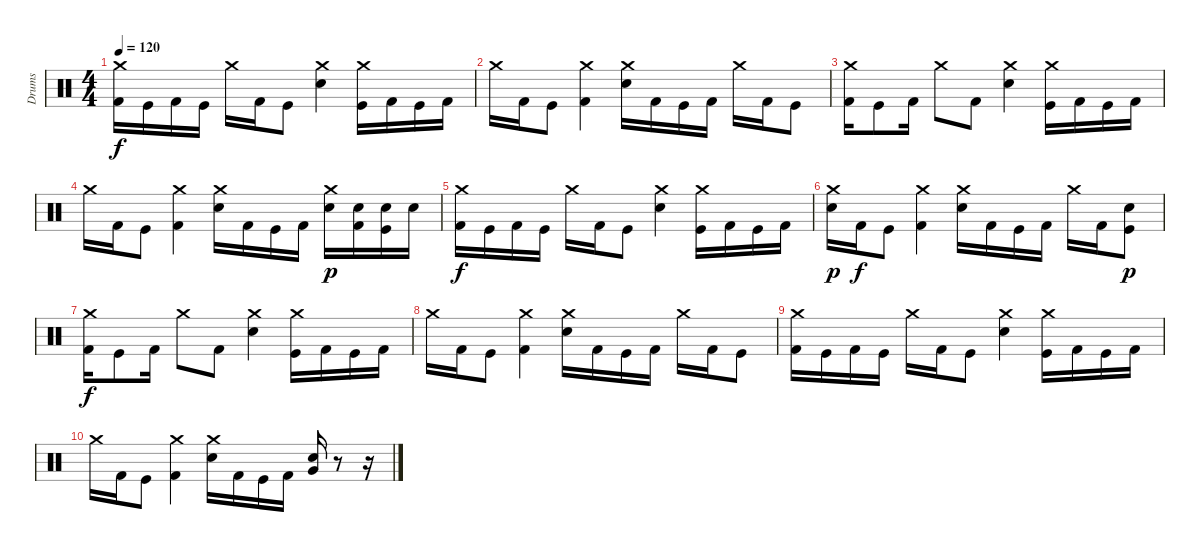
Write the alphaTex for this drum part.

\track ("Drums" "Drums") {instrument percussion}
\staff {score}
\articulation defaults
\ts (4 4)
\tempo 120
\clef neutral
\ks c
("Crash medium (hit)" "Kick (hit) 2").16{dy f} "Kick (hit)".16 "Kick (hit) 2".16 "Kick (hit)".16 "Crash medium (hit)".16 "Kick (hit) 2".16 "Kick (hit)".8 ("Crash medium (hit)" "Electric Snare (hit)").4 ("Crash medium (hit)" "Kick (hit)").16 "Kick (hit) 2".16 "Kick (hit)".16 "Kick (hit) 2".16 |
"Crash medium (hit)".16 "Kick (hit) 2".16 "Kick (hit)".8 ("Crash medium (hit)" "Kick (hit) 2").4 ("Crash medium (hit)" "Electric Snare (hit)").16 "Kick (hit) 2".16 "Kick (hit)".16 "Kick (hit) 2".16 "Crash medium (hit)".16 "Kick (hit) 2".16 "Kick (hit)".8 |
("Crash medium (hit)" "Kick (hit) 2").16 "Kick (hit)".8 "Kick (hit) 2".16 "Crash medium (hit)".8 "Kick (hit) 2".8 ("Crash medium (hit)" "Electric Snare (hit)").4 ("Crash medium (hit)" "Kick (hit)").16 "Kick (hit) 2".16 "Kick (hit)".16 "Kick (hit) 2".16 |
"Crash medium (hit)".16 "Kick (hit) 2".16 "Kick (hit)".8 ("Crash medium (hit)" "Kick (hit) 2").4 ("Crash medium (hit)" "Electric Snare (hit)").16 "Kick (hit) 2".16 "Kick (hit)".16 "Kick (hit) 2".16 ("Crash medium (hit)" "Electric Snare (hit)").16{dy p} ("Electric Snare (hit)" "Kick (hit) 2").16 ("Electric Snare (hit)" "Kick (hit)").16 "Electric Snare (hit)".16 |
("Crash medium (hit)" "Kick (hit) 2").16{dy f} "Kick (hit)".16 "Kick (hit) 2".16 "Kick (hit)".16 "Crash medium (hit)".16 "Kick (hit) 2".16 "Kick (hit)".8 ("Crash medium (hit)" "Electric Snare (hit)").4 ("Crash medium (hit)" "Kick (hit)").16 "Kick (hit) 2".16 "Kick (hit)".16 "Kick (hit) 2".16 |
("Crash medium (hit)" "Electric Snare (hit)").16{dy p} "Kick (hit) 2".16{dy f} "Kick (hit)".8 ("Crash medium (hit)" "Kick (hit) 2").4 ("Crash medium (hit)" "Electric Snare (hit)").16 "Kick (hit) 2".16 "Kick (hit)".16 "Kick (hit) 2".16 "Crash medium (hit)".16 "Kick (hit) 2".16 ("Electric Snare (hit)" "Kick (hit)").8{dy p} |
("Crash medium (hit)" "Kick (hit) 2").16{dy f} "Kick (hit)".8 "Kick (hit) 2".16 "Crash medium (hit)".8 "Kick (hit) 2".8 ("Crash medium (hit)" "Electric Snare (hit)").4 ("Crash medium (hit)" "Kick (hit)").16 "Kick (hit) 2".16 "Kick (hit)".16 "Kick (hit) 2".16 |
"Crash medium (hit)".16 "Kick (hit) 2".16 "Kick (hit)".8 ("Crash medium (hit)" "Kick (hit) 2").4 ("Crash medium (hit)" "Electric Snare (hit)").16 "Kick (hit) 2".16 "Kick (hit)".16 "Kick (hit) 2".16 "Crash medium (hit)".16 "Kick (hit) 2".16 "Kick (hit)".8 |
("Crash medium (hit)" "Kick (hit) 2").16 "Kick (hit)".16 "Kick (hit) 2".16 "Kick (hit)".16 "Crash medium (hit)".16 "Kick (hit) 2".16 "Kick (hit)".8 ("Crash medium (hit)" "Electric Snare (hit)").4 ("Crash medium (hit)" "Kick (hit)").16 "Kick (hit) 2".16 "Kick (hit)".16 "Kick (hit) 2".16 |
"Crash medium (hit)".16 "Kick (hit) 2".16 "Kick (hit)".8 ("Crash medium (hit)" "Kick (hit) 2").4 ("Crash medium (hit)" "Electric Snare (hit)").16 "Kick (hit) 2".16 "Kick (hit)".16 "Kick (hit) 2".16 ("Electric Snare (hit)" "Very Low Tom (hit)").16 r.8 r.16
